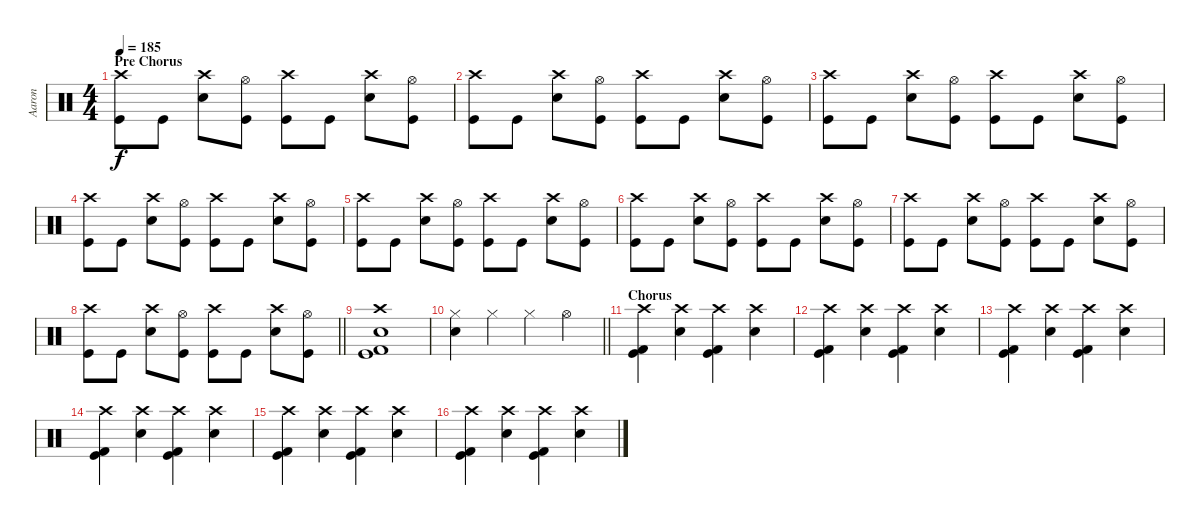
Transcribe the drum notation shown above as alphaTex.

\track ("Aaron" "Aaron") {instrument percussion}
\staff {score}
\articulation defaults
\ts (4 4)
\section ("" "Pre Chorus")
\tempo 185
\clef neutral
\ks c
("Crash high (hit)" "Kick (hit)").8{dy f} "Kick (hit)".8 ("Crash high (hit)" "Snare (hit) 2").8 ("Hi-Hat (open)" "Kick (hit)").8 ("Crash high (hit)" "Kick (hit)").8 "Kick (hit)".8 ("Crash high (hit)" "Snare (hit) 2").8 ("Hi-Hat (open)" "Kick (hit)").8 |
("Crash high (hit)" "Kick (hit)").8 "Kick (hit)".8 ("Crash high (hit)" "Snare (hit) 2").8 ("Hi-Hat (open)" "Kick (hit)").8 ("Crash high (hit)" "Kick (hit)").8 "Kick (hit)".8 ("Crash high (hit)" "Snare (hit) 2").8 ("Hi-Hat (open)" "Kick (hit)").8 |
("Crash high (hit)" "Kick (hit)").8 "Kick (hit)".8 ("Crash high (hit)" "Snare (hit) 2").8 ("Hi-Hat (open)" "Kick (hit)").8 ("Crash high (hit)" "Kick (hit)").8 "Kick (hit)".8 ("Crash high (hit)" "Snare (hit) 2").8 ("Hi-Hat (open)" "Kick (hit)").8 |
("Crash high (hit)" "Kick (hit)").8 "Kick (hit)".8 ("Crash high (hit)" "Snare (hit) 2").8 ("Hi-Hat (open)" "Kick (hit)").8 ("Crash high (hit)" "Kick (hit)").8 "Kick (hit)".8 ("Crash high (hit)" "Snare (hit) 2").8 ("Hi-Hat (open)" "Kick (hit)").8 |
("Crash high (hit)" "Kick (hit)").8 "Kick (hit)".8 ("Crash high (hit)" "Snare (hit) 2").8 ("Hi-Hat (open)" "Kick (hit)").8 ("Crash high (hit)" "Kick (hit)").8 "Kick (hit)".8 ("Crash high (hit)" "Snare (hit) 2").8 ("Hi-Hat (open)" "Kick (hit)").8 |
("Crash high (hit)" "Kick (hit)").8 "Kick (hit)".8 ("Crash high (hit)" "Snare (hit) 2").8 ("Hi-Hat (open)" "Kick (hit)").8 ("Crash high (hit)" "Kick (hit)").8 "Kick (hit)".8 ("Crash high (hit)" "Snare (hit) 2").8 ("Hi-Hat (open)" "Kick (hit)").8 |
("Crash high (hit)" "Kick (hit)").8 "Kick (hit)".8 ("Crash high (hit)" "Snare (hit) 2").8 ("Hi-Hat (open)" "Kick (hit)").8 ("Crash high (hit)" "Kick (hit)").8 "Kick (hit)".8 ("Crash high (hit)" "Snare (hit) 2").8 ("Hi-Hat (open)" "Kick (hit)").8 |
\barLineRight lightlight
("Crash high (hit)" "Kick (hit)").8 "Kick (hit)".8 ("Crash high (hit)" "Snare (hit) 2").8 ("Hi-Hat (open)" "Kick (hit)").8 ("Crash high (hit)" "Kick (hit)").8 "Kick (hit)".8 ("Crash high (hit)" "Snare (hit) 2").8 ("Hi-Hat (open)" "Kick (hit)").8 |
("Crash high (hit)" "Snare (hit) 2" "Kick (hit) 2" "Kick (hit)").1 |
\barLineRight lightlight
("Hi-Hat (closed)" "Electric Snare (hit)").4 "Hi-Hat (closed)".4 "Hi-Hat (closed)".4 "Hi-Hat (open)".4 |
\section ("" "Chorus")
("Crash high (hit)" "Kick (hit)" "Kick (hit) 2").4 ("Crash high (hit)" "Snare (hit) 2").4 ("Crash high (hit)" "Kick (hit)" "Kick (hit) 2").4 ("Crash high (hit)" "Snare (hit) 2").4 |
("Crash high (hit)" "Kick (hit)" "Kick (hit) 2").4 ("Crash high (hit)" "Snare (hit) 2").4 ("Crash high (hit)" "Kick (hit)" "Kick (hit) 2").4 ("Crash high (hit)" "Snare (hit) 2").4 |
("Crash high (hit)" "Kick (hit)" "Kick (hit) 2").4 ("Crash high (hit)" "Snare (hit) 2").4 ("Crash high (hit)" "Kick (hit)" "Kick (hit) 2").4 ("Crash high (hit)" "Snare (hit) 2").4 |
("Crash high (hit)" "Kick (hit)" "Kick (hit) 2").4 ("Crash high (hit)" "Snare (hit) 2").4 ("Crash high (hit)" "Kick (hit)" "Kick (hit) 2").4 ("Crash high (hit)" "Snare (hit) 2").4 |
("Crash high (hit)" "Kick (hit)" "Kick (hit) 2").4 ("Crash high (hit)" "Snare (hit) 2").4 ("Crash high (hit)" "Kick (hit)" "Kick (hit) 2").4 ("Crash high (hit)" "Snare (hit) 2").4 |
("Crash high (hit)" "Kick (hit)" "Kick (hit) 2").4 ("Crash high (hit)" "Snare (hit) 2").4 ("Crash high (hit)" "Kick (hit)" "Kick (hit) 2").4 ("Crash high (hit)" "Snare (hit) 2").4
